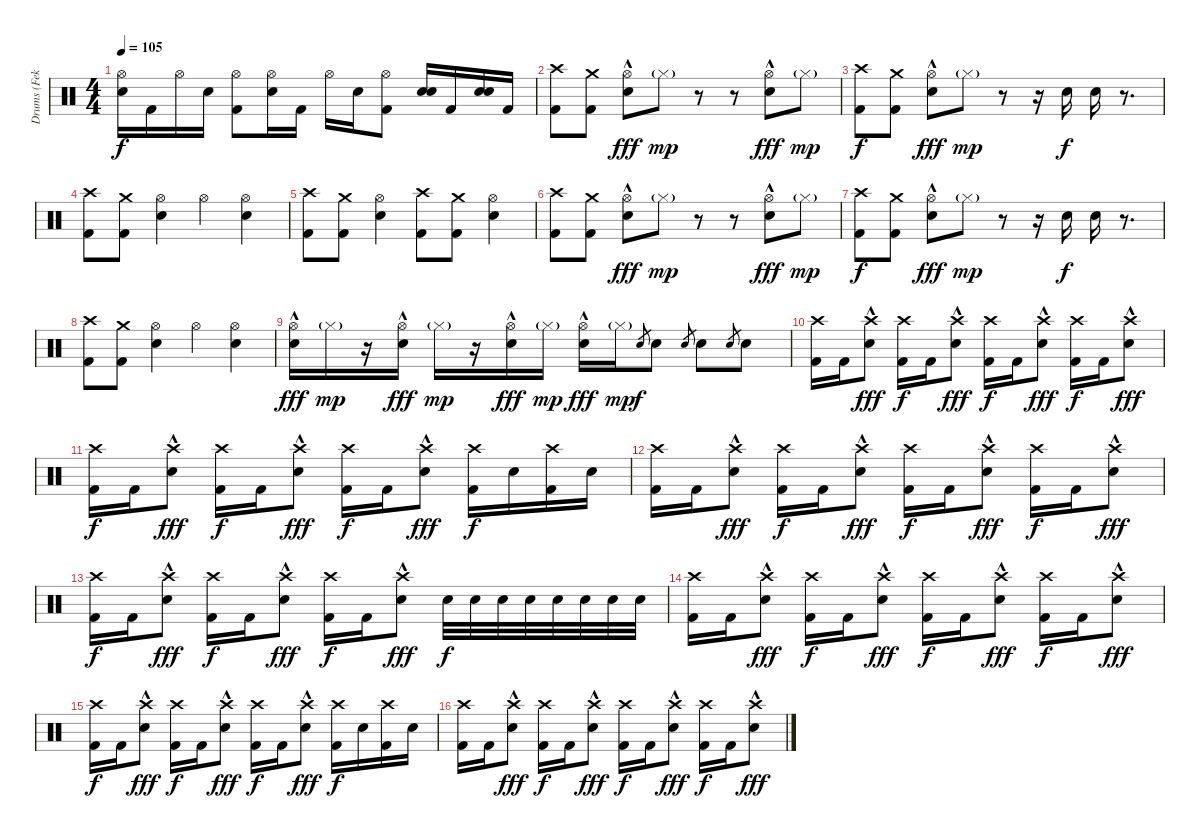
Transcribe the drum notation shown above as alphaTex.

\track ("Drums (Fekete 'Feka' Balázs)" "Drums (Fek") {instrument percussion}
\staff {score}
\articulation defaults
\ts (4 4)
\tempo 105
\clef neutral
\ks c
("Hi-Hat (open)" "Snare (hit) 2").16{dy f} "Kick (hit) 2".16 "Hi-Hat (open)".16 "Snare (hit) 2".16 ("Hi-Hat (open)" "Kick (hit) 2").8 ("Hi-Hat (open)" "Snare (hit) 2").16 "Kick (hit) 2".16 "Hi-Hat (open)".16 "Snare (hit) 2".16 ("Hi-Hat (open)" "Kick (hit) 2").8 ("Snare (hit) 2" "Snare (hit) 2").16 "Kick (hit) 2".16 ("Snare (hit) 2" "Snare (hit) 2").16 "Kick (hit) 2".16 |
("Crash high (hit)" "Kick (hit) 2").8 ("Crash medium (hit)" "Kick (hit) 2").8 ("Hi-Hat (open)"{hac} "Snare (hit) 2").8{dy fff} "Hi-Hat (closed)"{g}.8{dy mp} r.8 r.8 ("Hi-Hat (open)"{hac} "Snare (hit) 2").8{dy fff} "Hi-Hat (closed)"{g}.8{dy mp} |
("Crash high (hit)" "Kick (hit) 2").8{dy f} ("Crash medium (hit)" "Kick (hit) 2").8 ("Hi-Hat (open)"{hac} "Snare (hit) 2").8{dy fff} "Hi-Hat (closed)"{g}.8{dy mp} r.8 r.16 "Snare (hit) 2".16{dy f} "Snare (hit) 2".16 r.8{d} |
("Crash high (hit)" "Kick (hit) 2").8 ("Crash medium (hit)" "Kick (hit) 2").8 ("Hi-Hat (open)" "Snare (hit) 2").4 "Hi-Hat (open)".4 ("Hi-Hat (open)" "Snare (hit) 2").4 |
("Crash high (hit)" "Kick (hit) 2").8 ("Crash medium (hit)" "Kick (hit) 2").8 ("Hi-Hat (open)" "Snare (hit) 2").4 ("Crash high (hit)" "Kick (hit) 2").8 ("Crash medium (hit)" "Kick (hit) 2").8 ("Hi-Hat (open)" "Snare (hit) 2").4 |
("Crash high (hit)" "Kick (hit) 2").8 ("Crash medium (hit)" "Kick (hit) 2").8 ("Hi-Hat (open)"{hac} "Snare (hit) 2").8{dy fff} "Hi-Hat (closed)"{g}.8{dy mp} r.8 r.8 ("Hi-Hat (open)"{hac} "Snare (hit) 2").8{dy fff} "Hi-Hat (closed)"{g}.8{dy mp} |
("Crash high (hit)" "Kick (hit) 2").8{dy f} ("Crash medium (hit)" "Kick (hit) 2").8 ("Hi-Hat (open)"{hac} "Snare (hit) 2").8{dy fff} "Hi-Hat (closed)"{g}.8{dy mp} r.8 r.16 "Snare (hit) 2".16{dy f} "Snare (hit) 2".16 r.8{d} |
("Crash high (hit)" "Kick (hit) 2").8 ("Crash medium (hit)" "Kick (hit) 2").8 ("Hi-Hat (open)" "Snare (hit) 2").4 "Hi-Hat (open)".4 ("Hi-Hat (open)" "Snare (hit) 2").4 |
("Hi-Hat (open)"{hac} "Snare (hit) 2").16{dy fff} "Hi-Hat (closed)"{g}.16{dy mp} r.16 ("Hi-Hat (open)"{hac} "Snare (hit) 2").16{dy fff} "Hi-Hat (closed)"{g}.16{dy mp} r.16 ("Hi-Hat (open)"{hac} "Snare (hit) 2").16{dy fff} "Hi-Hat (closed)"{g}.16{dy mp} ("Hi-Hat (open)"{hac} "Snare (hit) 2").16{dy fff} "Hi-Hat (closed)"{g}.16{dy mp} "Snare (hit) 2".8{gr dy f} "Snare (hit) 2".8 "Snare (hit) 2".8{gr} "Snare (hit) 2".8 "Snare (hit) 2".8{gr} "Snare (hit) 2".8 |
("Crash high (hit)" "Kick (hit) 2").16 "Kick (hit) 2".16 ("Crash high (hit)" "Snare (hit) 2"{hac}).8{dy fff} ("Crash high (hit)" "Kick (hit) 2").16{dy f} "Kick (hit) 2".16 ("Crash high (hit)" "Snare (hit) 2"{hac}).8{dy fff} ("Crash high (hit)" "Kick (hit) 2").16{dy f} "Kick (hit) 2".16 ("Crash high (hit)" "Snare (hit) 2"{hac}).8{dy fff} ("Crash high (hit)" "Kick (hit) 2").16{dy f} "Kick (hit) 2".16 ("Crash high (hit)" "Snare (hit) 2"{hac}).8{dy fff} |
("Crash high (hit)" "Kick (hit) 2").16{dy f} "Kick (hit) 2".16 ("Crash high (hit)" "Snare (hit) 2"{hac}).8{dy fff} ("Crash high (hit)" "Kick (hit) 2").16{dy f} "Kick (hit) 2".16 ("Crash high (hit)" "Snare (hit) 2"{hac}).8{dy fff} ("Crash high (hit)" "Kick (hit) 2").16{dy f} "Kick (hit) 2".16 ("Crash high (hit)" "Snare (hit) 2"{hac}).8{dy fff} ("Crash high (hit)" "Kick (hit) 2").16{dy f} "Snare (hit) 2".16 ("Crash high (hit)" "Kick (hit) 2").16 "Snare (hit) 2".16 |
("Crash high (hit)" "Kick (hit) 2").16 "Kick (hit) 2".16 ("Crash high (hit)" "Snare (hit) 2"{hac}).8{dy fff} ("Crash high (hit)" "Kick (hit) 2").16{dy f} "Kick (hit) 2".16 ("Crash high (hit)" "Snare (hit) 2"{hac}).8{dy fff} ("Crash high (hit)" "Kick (hit) 2").16{dy f} "Kick (hit) 2".16 ("Crash high (hit)" "Snare (hit) 2"{hac}).8{dy fff} ("Crash high (hit)" "Kick (hit) 2").16{dy f} "Kick (hit) 2".16 ("Crash high (hit)" "Snare (hit) 2"{hac}).8{dy fff} |
("Crash high (hit)" "Kick (hit) 2").16{dy f} "Kick (hit) 2".16 ("Crash high (hit)" "Snare (hit) 2"{hac}).8{dy fff} ("Crash high (hit)" "Kick (hit) 2").16{dy f} "Kick (hit) 2".16 ("Crash high (hit)" "Snare (hit) 2"{hac}).8{dy fff} ("Crash high (hit)" "Kick (hit) 2").16{dy f} "Kick (hit) 2".16 ("Crash high (hit)" "Snare (hit) 2"{hac}).8{dy fff} "Snare (hit) 2".32{dy f} "Snare (hit) 2".32 "Snare (hit) 2".32 "Snare (hit) 2".32 "Snare (hit) 2".32 "Snare (hit) 2".32 "Snare (hit) 2".32 "Snare (hit) 2".32 |
("Crash high (hit)" "Kick (hit) 2").16 "Kick (hit) 2".16 ("Crash high (hit)" "Snare (hit) 2"{hac}).8{dy fff} ("Crash high (hit)" "Kick (hit) 2").16{dy f} "Kick (hit) 2".16 ("Crash high (hit)" "Snare (hit) 2"{hac}).8{dy fff} ("Crash high (hit)" "Kick (hit) 2").16{dy f} "Kick (hit) 2".16 ("Crash high (hit)" "Snare (hit) 2"{hac}).8{dy fff} ("Crash high (hit)" "Kick (hit) 2").16{dy f} "Kick (hit) 2".16 ("Crash high (hit)" "Snare (hit) 2"{hac}).8{dy fff} |
("Crash high (hit)" "Kick (hit) 2").16{dy f} "Kick (hit) 2".16 ("Crash high (hit)" "Snare (hit) 2"{hac}).8{dy fff} ("Crash high (hit)" "Kick (hit) 2").16{dy f} "Kick (hit) 2".16 ("Crash high (hit)" "Snare (hit) 2"{hac}).8{dy fff} ("Crash high (hit)" "Kick (hit) 2").16{dy f} "Kick (hit) 2".16 ("Crash high (hit)" "Snare (hit) 2"{hac}).8{dy fff} ("Crash high (hit)" "Kick (hit) 2").16{dy f} "Snare (hit) 2".16 ("Crash high (hit)" "Kick (hit) 2").16 "Snare (hit) 2".16 |
("Crash high (hit)" "Kick (hit) 2").16 "Kick (hit) 2".16 ("Crash high (hit)" "Snare (hit) 2"{hac}).8{dy fff} ("Crash high (hit)" "Kick (hit) 2").16{dy f} "Kick (hit) 2".16 ("Crash high (hit)" "Snare (hit) 2"{hac}).8{dy fff} ("Crash high (hit)" "Kick (hit) 2").16{dy f} "Kick (hit) 2".16 ("Crash high (hit)" "Snare (hit) 2"{hac}).8{dy fff} ("Crash high (hit)" "Kick (hit) 2").16{dy f} "Kick (hit) 2".16 ("Crash high (hit)" "Snare (hit) 2"{hac}).8{dy fff}
